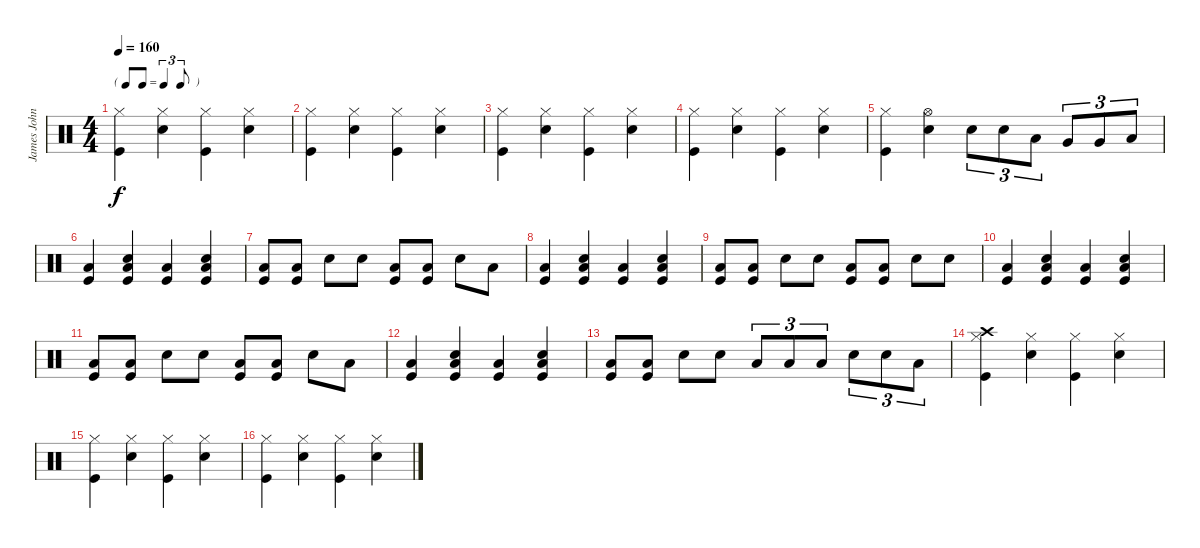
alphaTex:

\track ("James Johnston" "James John") {instrument percussion}
\staff {score}
\articulation defaults
\ts (4 4)
\tf triplet8th
\tempo 160
\clef neutral
\ks c
("Hi-Hat (closed)" "Kick (hit)").4{dy f} ("Hi-Hat (closed)" "Electric Snare (hit)").4 ("Hi-Hat (closed)" "Kick (hit)").4 ("Hi-Hat (closed)" "Electric Snare (hit)").4 |
("Hi-Hat (closed)" "Kick (hit)").4 ("Hi-Hat (closed)" "Electric Snare (hit)").4 ("Hi-Hat (closed)" "Kick (hit)").4 ("Hi-Hat (closed)" "Electric Snare (hit)").4 |
("Hi-Hat (closed)" "Kick (hit)").4 ("Hi-Hat (closed)" "Electric Snare (hit)").4 ("Hi-Hat (closed)" "Kick (hit)").4 ("Hi-Hat (closed)" "Electric Snare (hit)").4 |
("Hi-Hat (closed)" "Kick (hit)").4 ("Hi-Hat (closed)" "Electric Snare (hit)").4 ("Hi-Hat (closed)" "Kick (hit)").4 ("Hi-Hat (closed)" "Electric Snare (hit)").4 |
("Hi-Hat (closed)" "Kick (hit)").4 ("Hi-Hat (open)" "Electric Snare (hit)").4 "Electric Snare (hit)".8{tu (3 2)} "Electric Snare (hit)".8{tu (3 2)} "Low Tom (hit)".8{tu (3 2)} "Very Low Tom (hit)".8{tu (3 2)} "Very Low Tom (hit)".8{tu (3 2)} "Low Floor Tom (hit)".8{tu (3 2)} |
("Low Floor Tom (hit)" "Kick (hit)").4 ("Electric Snare (hit)" "Low Floor Tom (hit)" "Kick (hit)").4 ("Low Floor Tom (hit)" "Kick (hit)").4 ("Electric Snare (hit)" "Low Floor Tom (hit)" "Kick (hit)").4 |
("Low Floor Tom (hit)" "Kick (hit)").8 ("Low Floor Tom (hit)" "Kick (hit)").8 "Electric Snare (hit)".8 "Electric Snare (hit)".8 ("Low Floor Tom (hit)" "Kick (hit)").8 ("Low Floor Tom (hit)" "Kick (hit)").8 "Electric Snare (hit)".8 "Low Floor Tom (hit)".8 |
("Low Floor Tom (hit)" "Kick (hit)").4 ("Electric Snare (hit)" "Low Floor Tom (hit)" "Kick (hit)").4 ("Low Floor Tom (hit)" "Kick (hit)").4 ("Electric Snare (hit)" "Low Floor Tom (hit)" "Kick (hit)").4 |
("Low Floor Tom (hit)" "Kick (hit)").8 ("Low Floor Tom (hit)" "Kick (hit)").8 "Electric Snare (hit)".8 "Electric Snare (hit)".8 ("Low Floor Tom (hit)" "Kick (hit)").8 ("Low Floor Tom (hit)" "Kick (hit)").8 "Electric Snare (hit)".8 "Electric Snare (hit)".8 |
("Low Floor Tom (hit)" "Kick (hit)").4 ("Electric Snare (hit)" "Low Floor Tom (hit)" "Kick (hit)").4 ("Low Floor Tom (hit)" "Kick (hit)").4 ("Electric Snare (hit)" "Low Floor Tom (hit)" "Kick (hit)").4 |
("Low Floor Tom (hit)" "Kick (hit)").8 ("Low Floor Tom (hit)" "Kick (hit)").8 "Electric Snare (hit)".8 "Electric Snare (hit)".8 ("Low Floor Tom (hit)" "Kick (hit)").8 ("Low Floor Tom (hit)" "Kick (hit)").8 "Electric Snare (hit)".8 "Low Floor Tom (hit)".8 |
("Low Floor Tom (hit)" "Kick (hit)").4 ("Electric Snare (hit)" "Low Floor Tom (hit)" "Kick (hit)").4 ("Low Floor Tom (hit)" "Kick (hit)").4 ("Electric Snare (hit)" "Low Floor Tom (hit)" "Kick (hit)").4 |
("Low Floor Tom (hit)" "Kick (hit)").8 ("Low Floor Tom (hit)" "Kick (hit)").8 "Electric Snare (hit)".8 "Electric Snare (hit)".8 "Low Tom (hit)".8{tu (3 2)} "Low Tom (hit)".8{tu (3 2)} "Low Tom (hit)".8{tu (3 2)} "Electric Snare (hit)".8{tu (3 2)} "Electric Snare (hit)".8{tu (3 2)} "Low Tom (hit)".8{tu (3 2)} |
("Crash high (hit)" "Hi-Hat (closed)" "Kick (hit)").4 ("Hi-Hat (closed)" "Electric Snare (hit)").4 ("Hi-Hat (closed)" "Kick (hit)").4 ("Hi-Hat (closed)" "Electric Snare (hit)").4 |
("Hi-Hat (closed)" "Kick (hit)").4 ("Hi-Hat (closed)" "Electric Snare (hit)").4 ("Hi-Hat (closed)" "Kick (hit)").4 ("Hi-Hat (closed)" "Electric Snare (hit)").4 |
("Hi-Hat (closed)" "Kick (hit)").4 ("Hi-Hat (closed)" "Electric Snare (hit)").4 ("Hi-Hat (closed)" "Kick (hit)").4 ("Hi-Hat (closed)" "Electric Snare (hit)").4
